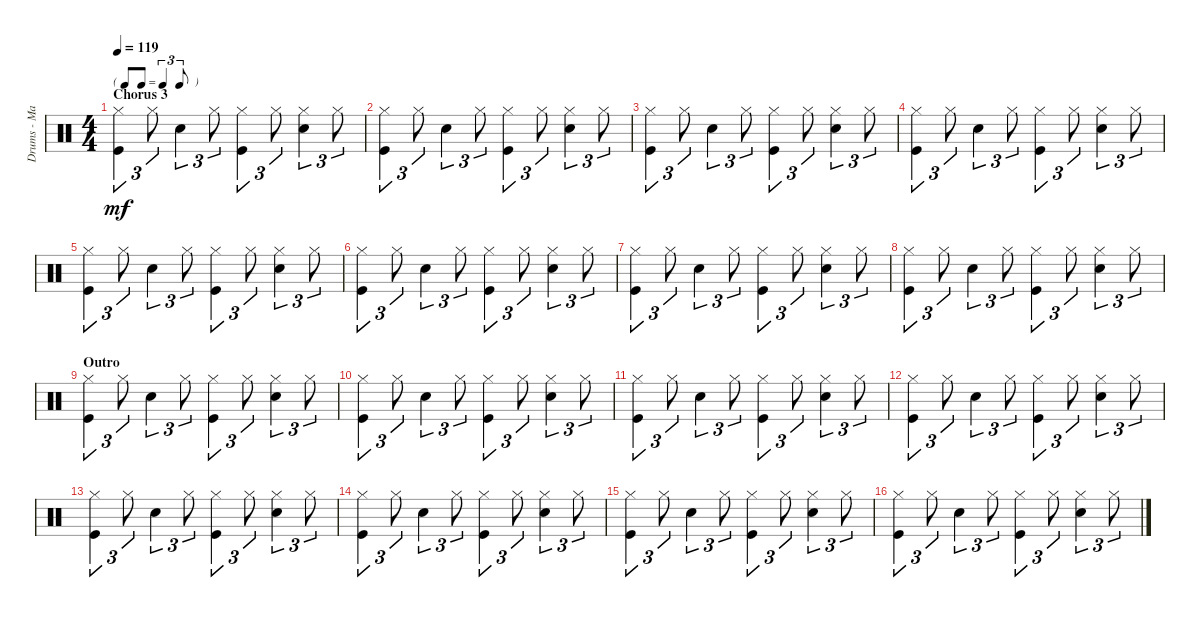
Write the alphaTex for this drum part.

\track ("Drums - Mason" "Drums - Ma") {instrument percussion}
\staff {score}
\articulation defaults
\ts (4 4)
\tf triplet8th
\section ("" "Chorus 3")
\tempo 119
\clef neutral
\ks c
("Hi-Hat (closed)" "Kick (hit)").4{tu (3 2) dy mf} "Hi-Hat (closed)".8{tu (3 2)} "Snare (hit) 2".4{tu (3 2)} "Hi-Hat (closed)".8{tu (3 2)} ("Hi-Hat (closed)" "Kick (hit)").4{tu (3 2)} "Hi-Hat (closed)".8{tu (3 2)} ("Hi-Hat (closed)" "Snare (hit) 2").4{tu (3 2)} "Hi-Hat (closed)".8{tu (3 2)} |
("Hi-Hat (closed)" "Kick (hit)").4{tu (3 2)} "Hi-Hat (closed)".8{tu (3 2)} "Snare (hit) 2".4{tu (3 2)} "Hi-Hat (closed)".8{tu (3 2)} ("Hi-Hat (closed)" "Kick (hit)").4{tu (3 2)} "Hi-Hat (closed)".8{tu (3 2)} ("Hi-Hat (closed)" "Snare (hit) 2").4{tu (3 2)} "Hi-Hat (closed)".8{tu (3 2)} |
("Hi-Hat (closed)" "Kick (hit)").4{tu (3 2)} "Hi-Hat (closed)".8{tu (3 2)} "Snare (hit) 2".4{tu (3 2)} "Hi-Hat (closed)".8{tu (3 2)} ("Hi-Hat (closed)" "Kick (hit)").4{tu (3 2)} "Hi-Hat (closed)".8{tu (3 2)} ("Hi-Hat (closed)" "Snare (hit) 2").4{tu (3 2)} "Hi-Hat (closed)".8{tu (3 2)} |
("Hi-Hat (closed)" "Kick (hit)").4{tu (3 2)} "Hi-Hat (closed)".8{tu (3 2)} "Snare (hit) 2".4{tu (3 2)} "Hi-Hat (closed)".8{tu (3 2)} ("Hi-Hat (closed)" "Kick (hit)").4{tu (3 2)} "Hi-Hat (closed)".8{tu (3 2)} ("Hi-Hat (closed)" "Snare (hit) 2").4{tu (3 2)} "Hi-Hat (closed)".8{tu (3 2)} |
("Hi-Hat (closed)" "Kick (hit)").4{tu (3 2)} "Hi-Hat (closed)".8{tu (3 2)} "Snare (hit) 2".4{tu (3 2)} "Hi-Hat (closed)".8{tu (3 2)} ("Hi-Hat (closed)" "Kick (hit)").4{tu (3 2)} "Hi-Hat (closed)".8{tu (3 2)} ("Hi-Hat (closed)" "Snare (hit) 2").4{tu (3 2)} "Hi-Hat (closed)".8{tu (3 2)} |
("Hi-Hat (closed)" "Kick (hit)").4{tu (3 2)} "Hi-Hat (closed)".8{tu (3 2)} "Snare (hit) 2".4{tu (3 2)} "Hi-Hat (closed)".8{tu (3 2)} ("Hi-Hat (closed)" "Kick (hit)").4{tu (3 2)} "Hi-Hat (closed)".8{tu (3 2)} ("Hi-Hat (closed)" "Snare (hit) 2").4{tu (3 2)} "Hi-Hat (closed)".8{tu (3 2)} |
("Hi-Hat (closed)" "Kick (hit)").4{tu (3 2)} "Hi-Hat (closed)".8{tu (3 2)} "Snare (hit) 2".4{tu (3 2)} "Hi-Hat (closed)".8{tu (3 2)} ("Hi-Hat (closed)" "Kick (hit)").4{tu (3 2)} "Hi-Hat (closed)".8{tu (3 2)} ("Hi-Hat (closed)" "Snare (hit) 2").4{tu (3 2)} "Hi-Hat (closed)".8{tu (3 2)} |
("Hi-Hat (closed)" "Kick (hit)").4{tu (3 2)} "Hi-Hat (closed)".8{tu (3 2)} "Snare (hit) 2".4{tu (3 2)} "Hi-Hat (closed)".8{tu (3 2)} ("Hi-Hat (closed)" "Kick (hit)").4{tu (3 2)} "Hi-Hat (closed)".8{tu (3 2)} ("Hi-Hat (closed)" "Snare (hit) 2").4{tu (3 2)} "Hi-Hat (closed)".8{tu (3 2)} |
\section ("" "Outro")
("Hi-Hat (closed)" "Kick (hit)").4{tu (3 2)} "Hi-Hat (closed)".8{tu (3 2)} "Snare (hit) 2".4{tu (3 2)} "Hi-Hat (closed)".8{tu (3 2)} ("Hi-Hat (closed)" "Kick (hit)").4{tu (3 2)} "Hi-Hat (closed)".8{tu (3 2)} ("Hi-Hat (closed)" "Snare (hit) 2").4{tu (3 2)} "Hi-Hat (closed)".8{tu (3 2)} |
("Hi-Hat (closed)" "Kick (hit)").4{tu (3 2)} "Hi-Hat (closed)".8{tu (3 2)} "Snare (hit) 2".4{tu (3 2)} "Hi-Hat (closed)".8{tu (3 2)} ("Hi-Hat (closed)" "Kick (hit)").4{tu (3 2)} "Hi-Hat (closed)".8{tu (3 2)} ("Hi-Hat (closed)" "Snare (hit) 2").4{tu (3 2)} "Hi-Hat (closed)".8{tu (3 2)} |
("Hi-Hat (closed)" "Kick (hit)").4{tu (3 2)} "Hi-Hat (closed)".8{tu (3 2)} "Snare (hit) 2".4{tu (3 2)} "Hi-Hat (closed)".8{tu (3 2)} ("Hi-Hat (closed)" "Kick (hit)").4{tu (3 2)} "Hi-Hat (closed)".8{tu (3 2)} ("Hi-Hat (closed)" "Snare (hit) 2").4{tu (3 2)} "Hi-Hat (closed)".8{tu (3 2)} |
("Hi-Hat (closed)" "Kick (hit)").4{tu (3 2)} "Hi-Hat (closed)".8{tu (3 2)} "Snare (hit) 2".4{tu (3 2)} "Hi-Hat (closed)".8{tu (3 2)} ("Hi-Hat (closed)" "Kick (hit)").4{tu (3 2)} "Hi-Hat (closed)".8{tu (3 2)} ("Hi-Hat (closed)" "Snare (hit) 2").4{tu (3 2)} "Hi-Hat (closed)".8{tu (3 2)} |
("Hi-Hat (closed)" "Kick (hit)").4{tu (3 2)} "Hi-Hat (closed)".8{tu (3 2)} "Snare (hit) 2".4{tu (3 2)} "Hi-Hat (closed)".8{tu (3 2)} ("Hi-Hat (closed)" "Kick (hit)").4{tu (3 2)} "Hi-Hat (closed)".8{tu (3 2)} ("Hi-Hat (closed)" "Snare (hit) 2").4{tu (3 2)} "Hi-Hat (closed)".8{tu (3 2)} |
("Hi-Hat (closed)" "Kick (hit)").4{tu (3 2)} "Hi-Hat (closed)".8{tu (3 2)} "Snare (hit) 2".4{tu (3 2)} "Hi-Hat (closed)".8{tu (3 2)} ("Hi-Hat (closed)" "Kick (hit)").4{tu (3 2)} "Hi-Hat (closed)".8{tu (3 2)} ("Hi-Hat (closed)" "Snare (hit) 2").4{tu (3 2)} "Hi-Hat (closed)".8{tu (3 2)} |
("Hi-Hat (closed)" "Kick (hit)").4{tu (3 2)} "Hi-Hat (closed)".8{tu (3 2)} "Snare (hit) 2".4{tu (3 2)} "Hi-Hat (closed)".8{tu (3 2)} ("Hi-Hat (closed)" "Kick (hit)").4{tu (3 2)} "Hi-Hat (closed)".8{tu (3 2)} ("Hi-Hat (closed)" "Snare (hit) 2").4{tu (3 2)} "Hi-Hat (closed)".8{tu (3 2)} |
("Hi-Hat (closed)" "Kick (hit)").4{tu (3 2)} "Hi-Hat (closed)".8{tu (3 2)} "Snare (hit) 2".4{tu (3 2)} "Hi-Hat (closed)".8{tu (3 2)} ("Hi-Hat (closed)" "Kick (hit)").4{tu (3 2)} "Hi-Hat (closed)".8{tu (3 2)} ("Hi-Hat (closed)" "Snare (hit) 2").4{tu (3 2)} "Hi-Hat (closed)".8{tu (3 2)}
